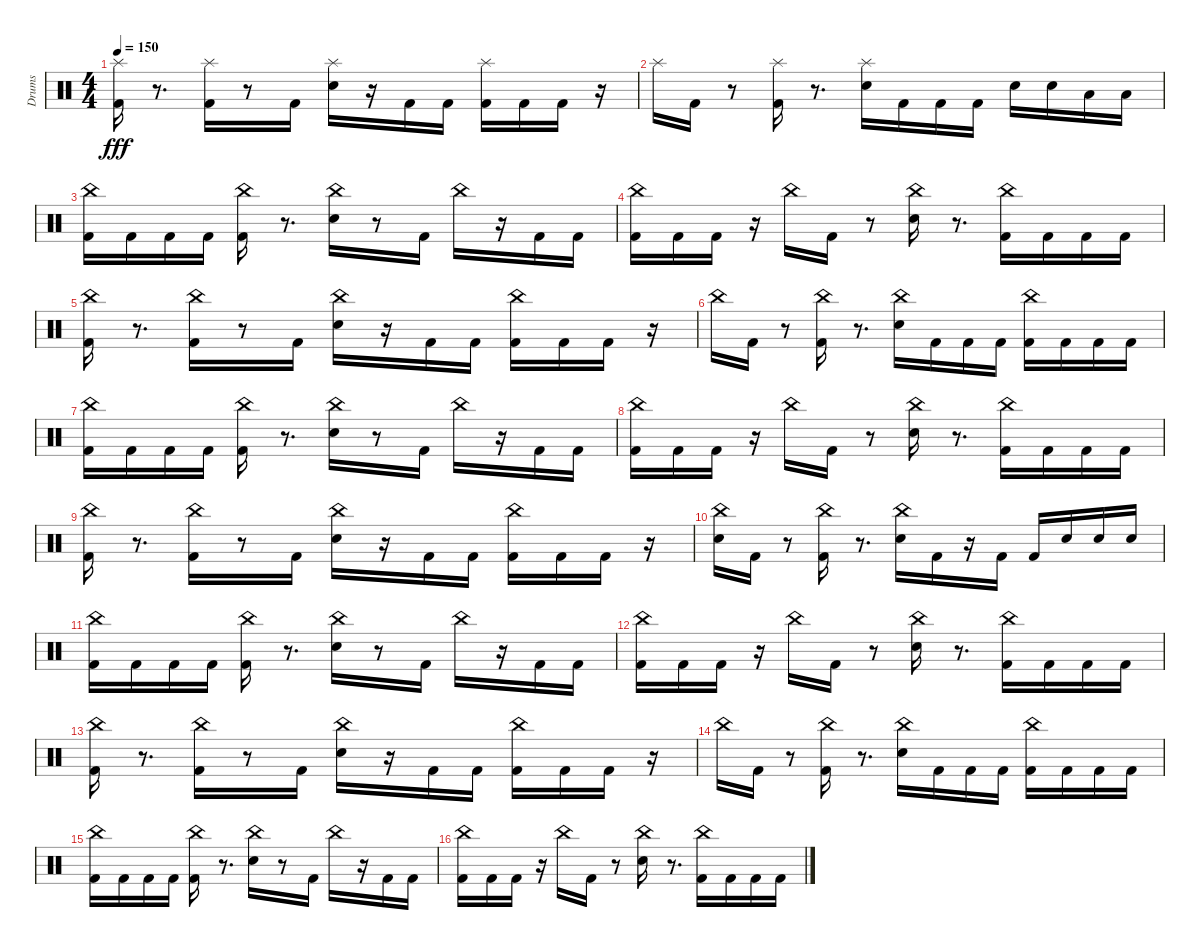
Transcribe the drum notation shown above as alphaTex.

\track ("Drums" "Drums") {instrument percussion}
\staff {score}
\articulation defaults
\ts (4 4)
\tempo 150
\clef neutral
\ks c
("Kick (hit) 2" "Splash (hit)").16{dy fff} r.8{d} ("Kick (hit) 2" "Splash (hit)").16 r.8 "Kick (hit) 2".16 ("Snare (hit) 2" "Splash (hit)").16 r.16 "Kick (hit) 2".16 "Kick (hit) 2".16 ("Kick (hit) 2" "Splash (hit)").16 "Kick (hit) 2".16 "Kick (hit) 2".16 r.16 |
"Splash (hit)".16 "Kick (hit) 2".16 r.8 ("Kick (hit) 2" "Splash (hit)").16 r.8{d} ("Snare (hit) 2" "Splash (hit)").16 "Kick (hit) 2".16 "Kick (hit) 2".16 "Kick (hit) 2".16 "Snare (hit) 2".16 "Snare (hit) 2".16 "Low Tom (hit)".16 "Low Tom (hit)".16 |
("Kick (hit) 2" "China (hit)").16 "Kick (hit) 2".16 "Kick (hit) 2".16 "Kick (hit) 2".16 ("Kick (hit) 2" "China (hit)").16 r.8{d} ("Snare (hit) 2" "China (hit)").16 r.8 "Kick (hit) 2".16 "China (hit)".16 r.16 "Kick (hit) 2".16 "Kick (hit) 2".16 |
("Kick (hit) 2" "China (hit)").16 "Kick (hit) 2".16 "Kick (hit) 2".16 r.16 "China (hit)".16 "Kick (hit) 2".16 r.8 ("Snare (hit) 2" "China (hit)").16 r.8{d} ("Kick (hit) 2" "China (hit)").16 "Kick (hit) 2".16 "Kick (hit) 2".16 "Kick (hit) 2".16 |
("Kick (hit) 2" "China (hit)").16 r.8{d} ("Kick (hit) 2" "China (hit)").16 r.8 "Kick (hit) 2".16 ("Snare (hit) 2" "China (hit)").16 r.16 "Kick (hit) 2".16 "Kick (hit) 2".16 ("Kick (hit) 2" "China (hit)").16 "Kick (hit) 2".16 "Kick (hit) 2".16 r.16 |
"China (hit)".16 "Kick (hit) 2".16 r.8 ("Kick (hit) 2" "China (hit)").16 r.8{d} ("Snare (hit) 2" "China (hit)").16 "Kick (hit) 2".16 "Kick (hit) 2".16 "Kick (hit) 2".16 ("Kick (hit) 2" "China (hit)").16 "Kick (hit) 2".16 "Kick (hit) 2".16 "Kick (hit) 2".16 |
("Kick (hit) 2" "China (hit)").16 "Kick (hit) 2".16 "Kick (hit) 2".16 "Kick (hit) 2".16 ("Kick (hit) 2" "China (hit)").16 r.8{d} ("Snare (hit) 2" "China (hit)").16 r.8 "Kick (hit) 2".16 "China (hit)".16 r.16 "Kick (hit) 2".16 "Kick (hit) 2".16 |
("Kick (hit) 2" "China (hit)").16 "Kick (hit) 2".16 "Kick (hit) 2".16 r.16 "China (hit)".16 "Kick (hit) 2".16 r.8 ("Snare (hit) 2" "China (hit)").16 r.8{d} ("Kick (hit) 2" "China (hit)").16 "Kick (hit) 2".16 "Kick (hit) 2".16 "Kick (hit) 2".16 |
("Kick (hit) 2" "China (hit)").16 r.8{d} ("Kick (hit) 2" "China (hit)").16 r.8 "Kick (hit) 2".16 ("Snare (hit) 2" "China (hit)").16 r.16 "Kick (hit) 2".16 "Kick (hit) 2".16 ("Kick (hit) 2" "China (hit)").16 "Kick (hit) 2".16 "Kick (hit) 2".16 r.16 |
("Snare (hit) 2" "China (hit)").16 "Kick (hit) 2".16 r.8 ("Kick (hit) 2" "China (hit)").16 r.8{d} ("Snare (hit) 2" "China (hit)").16 "Kick (hit) 2".16 r.16 "Kick (hit) 2".16 "Kick (hit) 2".16 "Snare (hit) 2".16 "Snare (hit) 2".16 "Snare (hit) 2".16 |
("Kick (hit) 2" "China (hit)").16 "Kick (hit) 2".16 "Kick (hit) 2".16 "Kick (hit) 2".16 ("Kick (hit) 2" "China (hit)").16 r.8{d} ("Snare (hit) 2" "China (hit)").16 r.8 "Kick (hit) 2".16 "China (hit)".16 r.16 "Kick (hit) 2".16 "Kick (hit) 2".16 |
("Kick (hit) 2" "China (hit)").16 "Kick (hit) 2".16 "Kick (hit) 2".16 r.16 "China (hit)".16 "Kick (hit) 2".16 r.8 ("Snare (hit) 2" "China (hit)").16 r.8{d} ("Kick (hit) 2" "China (hit)").16 "Kick (hit) 2".16 "Kick (hit) 2".16 "Kick (hit) 2".16 |
("Kick (hit) 2" "China (hit)").16 r.8{d} ("Kick (hit) 2" "China (hit)").16 r.8 "Kick (hit) 2".16 ("Snare (hit) 2" "China (hit)").16 r.16 "Kick (hit) 2".16 "Kick (hit) 2".16 ("Kick (hit) 2" "China (hit)").16 "Kick (hit) 2".16 "Kick (hit) 2".16 r.16 |
"China (hit)".16 "Kick (hit) 2".16 r.8 ("Kick (hit) 2" "China (hit)").16 r.8{d} ("Snare (hit) 2" "China (hit)").16 "Kick (hit) 2".16 "Kick (hit) 2".16 "Kick (hit) 2".16 ("Kick (hit) 2" "China (hit)").16 "Kick (hit) 2".16 "Kick (hit) 2".16 "Kick (hit) 2".16 |
("Kick (hit) 2" "China (hit)").16 "Kick (hit) 2".16 "Kick (hit) 2".16 "Kick (hit) 2".16 ("Kick (hit) 2" "China (hit)").16 r.8{d} ("Snare (hit) 2" "China (hit)").16 r.8 "Kick (hit) 2".16 "China (hit)".16 r.16 "Kick (hit) 2".16 "Kick (hit) 2".16 |
("Kick (hit) 2" "China (hit)").16 "Kick (hit) 2".16 "Kick (hit) 2".16 r.16 "China (hit)".16 "Kick (hit) 2".16 r.8 ("Snare (hit) 2" "China (hit)").16 r.8{d} ("Kick (hit) 2" "China (hit)").16 "Kick (hit) 2".16 "Kick (hit) 2".16 "Kick (hit) 2".16
